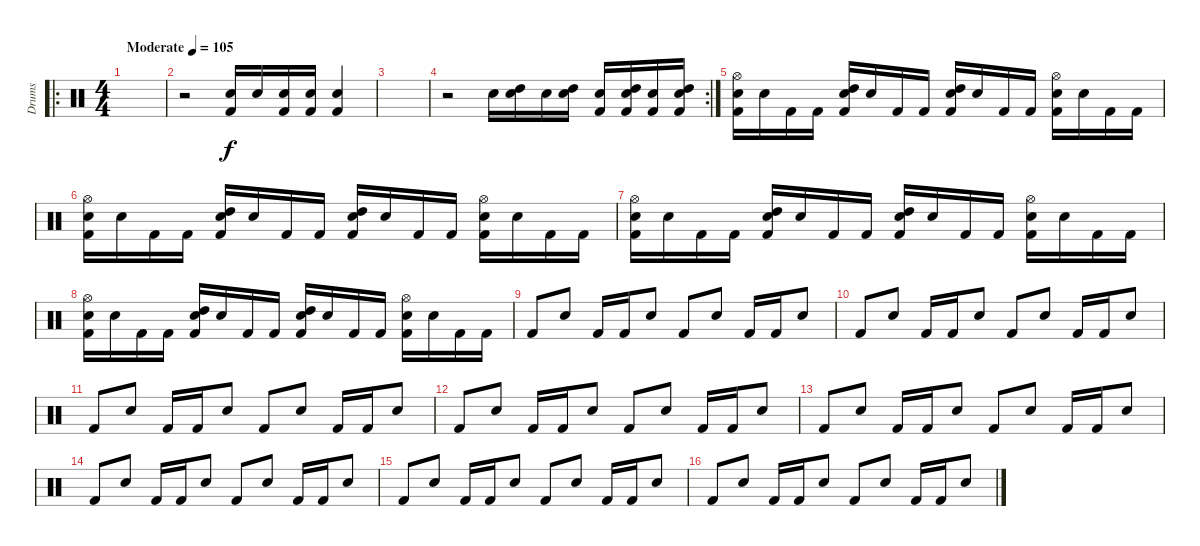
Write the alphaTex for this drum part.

\track ("Drums" "Drums") {instrument percussion}
\staff {score}
\articulation defaults
\ro
\ts (4 4)
\tempo (105 "Moderate")
\clef neutral
\ks c
|
r.2 ("Kick (hit) 2" "Snare (hit) 2").16 "Snare (hit) 2".16 ("Kick (hit) 2" "Snare (hit) 2").16 ("Kick (hit) 2" "Snare (hit) 2").16 ("Kick (hit) 2" "Snare (hit) 2").4 |
|
\rc 2
r.2 "Snare (hit) 2".16 ("Snare (hit) 2" "High Tom (hit)").16 "Snare (hit) 2".16 ("Snare (hit) 2" "High Tom (hit)").16 ("Kick (hit) 2" "Snare (hit) 2").16 ("Kick (hit) 2" "Snare (hit) 2" "High Tom (hit)").16 ("Kick (hit) 2" "Snare (hit) 2").16 ("Kick (hit) 2" "Snare (hit) 2" "High Tom (hit)").16 |
("Kick (hit) 2" "Snare (hit) 2" "Hi-Hat (open)").16 "Snare (hit) 2".16 "Kick (hit) 2".16 "Kick (hit) 2".16 ("Kick (hit) 2" "Snare (hit) 2" "High Tom (hit)").16 "Snare (hit) 2".16 "Kick (hit) 2".16 "Kick (hit) 2".16 ("Kick (hit) 2" "Snare (hit) 2" "High Tom (hit)").16 "Snare (hit) 2".16 "Kick (hit) 2".16 "Kick (hit) 2".16 ("Kick (hit) 2" "Snare (hit) 2" "Hi-Hat (open)").16 "Snare (hit) 2".16 "Kick (hit) 2".16 "Kick (hit) 2".16 |
("Kick (hit) 2" "Snare (hit) 2" "Hi-Hat (open)").16 "Snare (hit) 2".16 "Kick (hit) 2".16 "Kick (hit) 2".16 ("Kick (hit) 2" "Snare (hit) 2" "High Tom (hit)").16 "Snare (hit) 2".16 "Kick (hit) 2".16 "Kick (hit) 2".16 ("Kick (hit) 2" "Snare (hit) 2" "High Tom (hit)").16 "Snare (hit) 2".16 "Kick (hit) 2".16 "Kick (hit) 2".16 ("Kick (hit) 2" "Snare (hit) 2" "Hi-Hat (open)").16 "Snare (hit) 2".16 "Kick (hit) 2".16 "Kick (hit) 2".16 |
("Kick (hit) 2" "Snare (hit) 2" "Hi-Hat (open)").16 "Snare (hit) 2".16 "Kick (hit) 2".16 "Kick (hit) 2".16 ("Kick (hit) 2" "Snare (hit) 2" "High Tom (hit)").16 "Snare (hit) 2".16 "Kick (hit) 2".16 "Kick (hit) 2".16 ("Kick (hit) 2" "Snare (hit) 2" "High Tom (hit)").16 "Snare (hit) 2".16 "Kick (hit) 2".16 "Kick (hit) 2".16 ("Kick (hit) 2" "Snare (hit) 2" "Hi-Hat (open)").16 "Snare (hit) 2".16 "Kick (hit) 2".16 "Kick (hit) 2".16 |
("Kick (hit) 2" "Snare (hit) 2" "Hi-Hat (open)").16 "Snare (hit) 2".16 "Kick (hit) 2".16 "Kick (hit) 2".16 ("Kick (hit) 2" "Snare (hit) 2" "High Tom (hit)").16 "Snare (hit) 2".16 "Kick (hit) 2".16 "Kick (hit) 2".16 ("Kick (hit) 2" "Snare (hit) 2" "High Tom (hit)").16 "Snare (hit) 2".16 "Kick (hit) 2".16 "Kick (hit) 2".16 ("Kick (hit) 2" "Snare (hit) 2" "Hi-Hat (open)").16 "Snare (hit) 2".16 "Kick (hit) 2".16 "Kick (hit) 2".16 |
"Kick (hit) 2".8 "Snare (hit) 2".8 "Kick (hit) 2".16 "Kick (hit) 2".16 "Snare (hit) 2".8 "Kick (hit) 2".8 "Snare (hit) 2".8 "Kick (hit) 2".16 "Kick (hit) 2".16 "Snare (hit) 2".8 |
"Kick (hit) 2".8 "Snare (hit) 2".8 "Kick (hit) 2".16 "Kick (hit) 2".16 "Snare (hit) 2".8 "Kick (hit) 2".8 "Snare (hit) 2".8 "Kick (hit) 2".16 "Kick (hit) 2".16 "Snare (hit) 2".8 |
"Kick (hit) 2".8 "Snare (hit) 2".8 "Kick (hit) 2".16 "Kick (hit) 2".16 "Snare (hit) 2".8 "Kick (hit) 2".8 "Snare (hit) 2".8 "Kick (hit) 2".16 "Kick (hit) 2".16 "Snare (hit) 2".8 |
"Kick (hit) 2".8 "Snare (hit) 2".8 "Kick (hit) 2".16 "Kick (hit) 2".16 "Snare (hit) 2".8 "Kick (hit) 2".8 "Snare (hit) 2".8 "Kick (hit) 2".16 "Kick (hit) 2".16 "Snare (hit) 2".8 |
"Kick (hit) 2".8 "Snare (hit) 2".8 "Kick (hit) 2".16 "Kick (hit) 2".16 "Snare (hit) 2".8 "Kick (hit) 2".8 "Snare (hit) 2".8 "Kick (hit) 2".16 "Kick (hit) 2".16 "Snare (hit) 2".8 |
"Kick (hit) 2".8 "Snare (hit) 2".8 "Kick (hit) 2".16 "Kick (hit) 2".16 "Snare (hit) 2".8 "Kick (hit) 2".8 "Snare (hit) 2".8 "Kick (hit) 2".16 "Kick (hit) 2".16 "Snare (hit) 2".8 |
"Kick (hit) 2".8 "Snare (hit) 2".8 "Kick (hit) 2".16 "Kick (hit) 2".16 "Snare (hit) 2".8 "Kick (hit) 2".8 "Snare (hit) 2".8 "Kick (hit) 2".16 "Kick (hit) 2".16 "Snare (hit) 2".8 |
"Kick (hit) 2".8 "Snare (hit) 2".8 "Kick (hit) 2".16 "Kick (hit) 2".16 "Snare (hit) 2".8 "Kick (hit) 2".8 "Snare (hit) 2".8 "Kick (hit) 2".16 "Kick (hit) 2".16 "Snare (hit) 2".8
